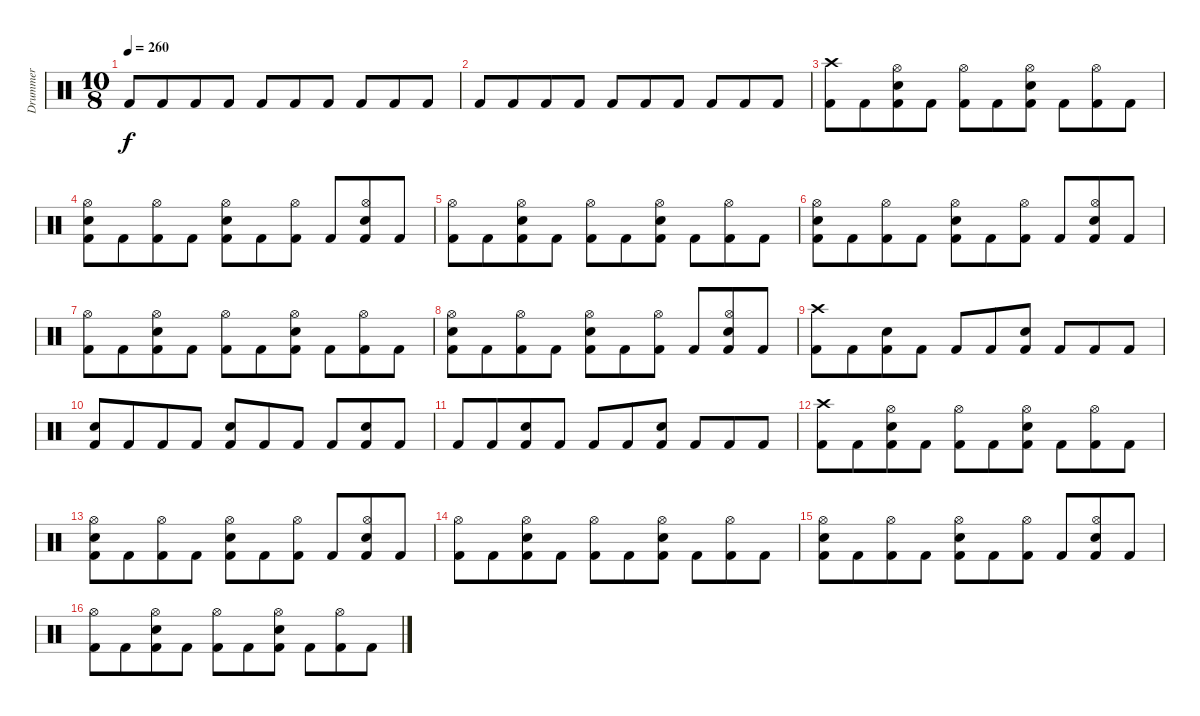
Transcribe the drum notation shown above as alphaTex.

\track ("Drummer" "Drummer") {instrument percussion}
\staff {score}
\articulation defaults
\ts (10 8)
\tempo 260
\clef neutral
\ks c "Kick (hit) 2".8{dy f} "Kick (hit) 2".8 "Kick (hit) 2".8 "Kick (hit) 2".8 "Kick (hit) 2".8 "Kick (hit) 2".8 "Kick (hit) 2".8 "Kick (hit) 2".8 "Kick (hit) 2".8 "Kick (hit) 2".8
|
"Kick (hit) 2".8 "Kick (hit) 2".8 "Kick (hit) 2".8 "Kick (hit) 2".8 "Kick (hit) 2".8 "Kick (hit) 2".8 "Kick (hit) 2".8 "Kick (hit) 2".8 "Kick (hit) 2".8 "Kick (hit) 2".8 |
("Crash high (hit)" "Kick (hit) 2").8 "Kick (hit) 2".8 ("Hi-Hat (open)" "Snare (hit) 2" "Kick (hit) 2").8 "Kick (hit) 2".8 ("Hi-Hat (open)" "Kick (hit) 2").8 "Kick (hit) 2".8 ("Hi-Hat (open)" "Snare (hit) 2" "Kick (hit) 2").8 "Kick (hit) 2".8 ("Hi-Hat (open)" "Kick (hit) 2").8 "Kick (hit) 2".8 |
("Hi-Hat (open)" "Snare (hit) 2" "Kick (hit) 2").8 "Kick (hit) 2".8 ("Hi-Hat (open)" "Kick (hit) 2").8 "Kick (hit) 2".8 ("Hi-Hat (open)" "Snare (hit) 2" "Kick (hit) 2").8 "Kick (hit) 2".8 ("Hi-Hat (open)" "Kick (hit) 2").8 "Kick (hit) 2".8 ("Hi-Hat (open)" "Snare (hit) 2" "Kick (hit) 2").8 "Kick (hit) 2".8 |
("Hi-Hat (open)" "Kick (hit) 2").8 "Kick (hit) 2".8 ("Hi-Hat (open)" "Snare (hit) 2" "Kick (hit) 2").8 "Kick (hit) 2".8 ("Hi-Hat (open)" "Kick (hit) 2").8 "Kick (hit) 2".8 ("Hi-Hat (open)" "Snare (hit) 2" "Kick (hit) 2").8 "Kick (hit) 2".8 ("Hi-Hat (open)" "Kick (hit) 2").8 "Kick (hit) 2".8 |
("Hi-Hat (open)" "Snare (hit) 2" "Kick (hit) 2").8 "Kick (hit) 2".8 ("Hi-Hat (open)" "Kick (hit) 2").8 "Kick (hit) 2".8 ("Hi-Hat (open)" "Snare (hit) 2" "Kick (hit) 2").8 "Kick (hit) 2".8 ("Hi-Hat (open)" "Kick (hit) 2").8 "Kick (hit) 2".8 ("Hi-Hat (open)" "Snare (hit) 2" "Kick (hit) 2").8 "Kick (hit) 2".8 |
("Hi-Hat (open)" "Kick (hit) 2").8 "Kick (hit) 2".8 ("Hi-Hat (open)" "Snare (hit) 2" "Kick (hit) 2").8 "Kick (hit) 2".8 ("Hi-Hat (open)" "Kick (hit) 2").8 "Kick (hit) 2".8 ("Hi-Hat (open)" "Snare (hit) 2" "Kick (hit) 2").8 "Kick (hit) 2".8 ("Hi-Hat (open)" "Kick (hit) 2").8 "Kick (hit) 2".8 |
("Hi-Hat (open)" "Snare (hit) 2" "Kick (hit) 2").8 "Kick (hit) 2".8 ("Hi-Hat (open)" "Kick (hit) 2").8 "Kick (hit) 2".8 ("Hi-Hat (open)" "Snare (hit) 2" "Kick (hit) 2").8 "Kick (hit) 2".8 ("Hi-Hat (open)" "Kick (hit) 2").8 "Kick (hit) 2".8 ("Hi-Hat (open)" "Snare (hit) 2" "Kick (hit) 2").8 "Kick (hit) 2".8 |
("Crash high (hit)" "Kick (hit) 2").8 "Kick (hit) 2".8 ("Snare (hit) 2" "Kick (hit) 2").8 "Kick (hit) 2".8 "Kick (hit) 2".8 "Kick (hit) 2".8 ("Snare (hit) 2" "Kick (hit) 2").8 "Kick (hit) 2".8 "Kick (hit) 2".8 "Kick (hit) 2".8 |
("Snare (hit) 2" "Kick (hit) 2").8 "Kick (hit) 2".8 "Kick (hit) 2".8 "Kick (hit) 2".8 ("Snare (hit) 2" "Kick (hit) 2").8 "Kick (hit) 2".8 "Kick (hit) 2".8 "Kick (hit) 2".8 ("Snare (hit) 2" "Kick (hit) 2").8 "Kick (hit) 2".8 |
"Kick (hit) 2".8 "Kick (hit) 2".8 ("Snare (hit) 2" "Kick (hit) 2").8 "Kick (hit) 2".8 "Kick (hit) 2".8 "Kick (hit) 2".8 ("Snare (hit) 2" "Kick (hit) 2").8 "Kick (hit) 2".8 "Kick (hit) 2".8 "Kick (hit) 2".8 |
("Crash high (hit)" "Kick (hit) 2").8 "Kick (hit) 2".8 ("Hi-Hat (open)" "Snare (hit) 2" "Kick (hit) 2").8 "Kick (hit) 2".8 ("Hi-Hat (open)" "Kick (hit) 2").8 "Kick (hit) 2".8 ("Hi-Hat (open)" "Snare (hit) 2" "Kick (hit) 2").8 "Kick (hit) 2".8 ("Hi-Hat (open)" "Kick (hit) 2").8 "Kick (hit) 2".8 |
("Hi-Hat (open)" "Snare (hit) 2" "Kick (hit) 2").8 "Kick (hit) 2".8 ("Hi-Hat (open)" "Kick (hit) 2").8 "Kick (hit) 2".8 ("Hi-Hat (open)" "Snare (hit) 2" "Kick (hit) 2").8 "Kick (hit) 2".8 ("Hi-Hat (open)" "Kick (hit) 2").8 "Kick (hit) 2".8 ("Hi-Hat (open)" "Snare (hit) 2" "Kick (hit) 2").8 "Kick (hit) 2".8 |
("Hi-Hat (open)" "Kick (hit) 2").8 "Kick (hit) 2".8 ("Hi-Hat (open)" "Snare (hit) 2" "Kick (hit) 2").8 "Kick (hit) 2".8 ("Hi-Hat (open)" "Kick (hit) 2").8 "Kick (hit) 2".8 ("Hi-Hat (open)" "Snare (hit) 2" "Kick (hit) 2").8 "Kick (hit) 2".8 ("Hi-Hat (open)" "Kick (hit) 2").8 "Kick (hit) 2".8 |
("Hi-Hat (open)" "Snare (hit) 2" "Kick (hit) 2").8 "Kick (hit) 2".8 ("Hi-Hat (open)" "Kick (hit) 2").8 "Kick (hit) 2".8 ("Hi-Hat (open)" "Snare (hit) 2" "Kick (hit) 2").8 "Kick (hit) 2".8 ("Hi-Hat (open)" "Kick (hit) 2").8 "Kick (hit) 2".8 ("Hi-Hat (open)" "Snare (hit) 2" "Kick (hit) 2").8 "Kick (hit) 2".8 |
("Hi-Hat (open)" "Kick (hit) 2").8 "Kick (hit) 2".8 ("Hi-Hat (open)" "Snare (hit) 2" "Kick (hit) 2").8 "Kick (hit) 2".8 ("Hi-Hat (open)" "Kick (hit) 2").8 "Kick (hit) 2".8 ("Hi-Hat (open)" "Snare (hit) 2" "Kick (hit) 2").8 "Kick (hit) 2".8 ("Hi-Hat (open)" "Kick (hit) 2").8 "Kick (hit) 2".8
